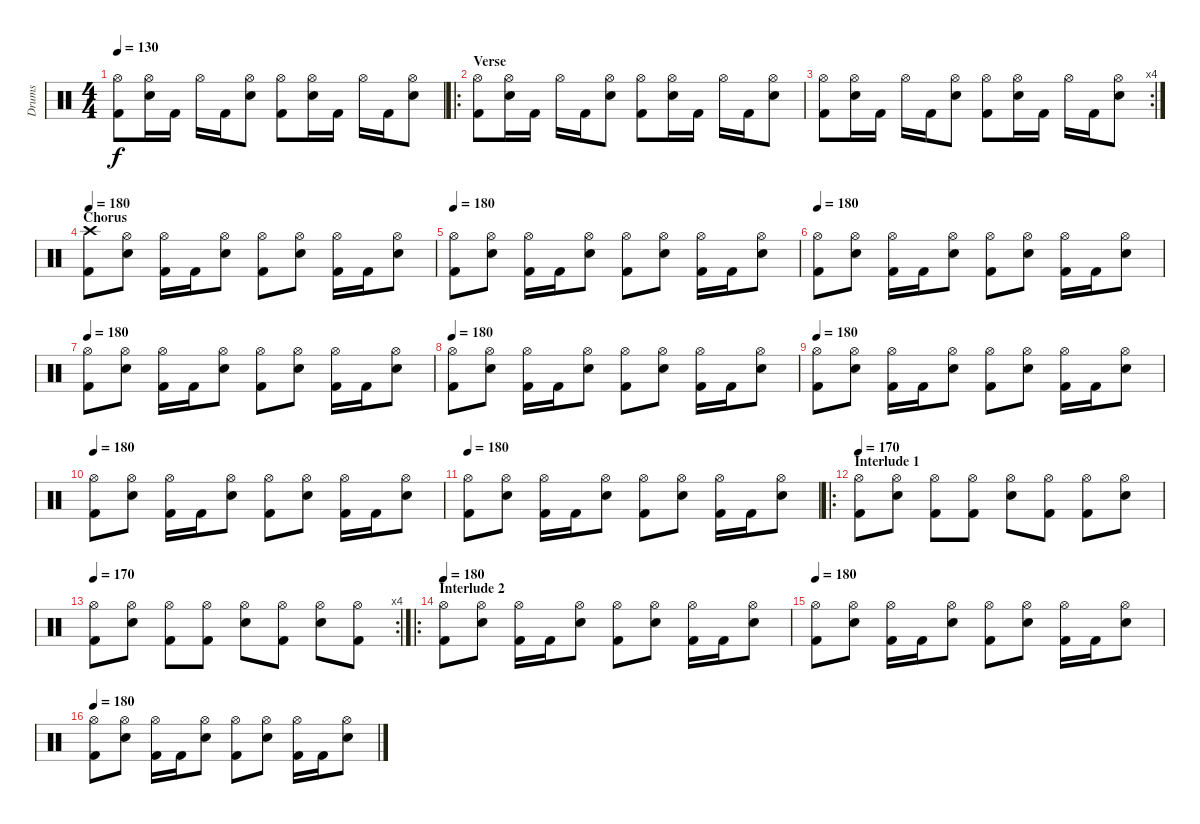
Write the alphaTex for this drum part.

\track ("Drums" "Drums") {instrument percussion}
\staff {score}
\articulation defaults
\ts (4 4)
\tempo 130
\clef neutral
\ks c
("Hi-Hat (open)" "Kick (hit) 2").8{dy f} ("Hi-Hat (open)" "Electric Snare (hit)").16 "Kick (hit) 2".16 "Hi-Hat (open)".16 "Kick (hit) 2".16 ("Hi-Hat (open)" "Electric Snare (hit)").8 ("Hi-Hat (open)" "Kick (hit) 2").8 ("Hi-Hat (open)" "Electric Snare (hit)").16 "Kick (hit) 2".16 "Hi-Hat (open)".16 "Kick (hit) 2".16 ("Hi-Hat (open)" "Electric Snare (hit)").8 |
\ro
\section ("" "Verse")
("Hi-Hat (open)" "Kick (hit) 2").8 ("Hi-Hat (open)" "Electric Snare (hit)").16 "Kick (hit) 2".16 "Hi-Hat (open)".16 "Kick (hit) 2".16 ("Hi-Hat (open)" "Electric Snare (hit)").8 ("Hi-Hat (open)" "Kick (hit) 2").8 ("Hi-Hat (open)" "Electric Snare (hit)").16 "Kick (hit) 2".16 "Hi-Hat (open)".16 "Kick (hit) 2".16 ("Hi-Hat (open)" "Electric Snare (hit)").8 |
\rc 4
("Hi-Hat (open)" "Kick (hit) 2").8 ("Hi-Hat (open)" "Electric Snare (hit)").16 "Kick (hit) 2".16 "Hi-Hat (open)".16 "Kick (hit) 2".16 ("Hi-Hat (open)" "Electric Snare (hit)").8 ("Hi-Hat (open)" "Kick (hit) 2").8 ("Hi-Hat (open)" "Electric Snare (hit)").16 "Kick (hit) 2".16 "Hi-Hat (open)".16 "Kick (hit) 2".16 ("Hi-Hat (open)" "Electric Snare (hit)").8 |
\section ("" "Chorus")
\tempo 180
("Crash high (hit)" "Kick (hit) 2").8 ("Hi-Hat (open)" "Electric Snare (hit)").8 ("Hi-Hat (open)" "Kick (hit) 2").16 "Kick (hit) 2".16 ("Hi-Hat (open)" "Electric Snare (hit)").8 ("Hi-Hat (open)" "Kick (hit) 2").8 ("Hi-Hat (open)" "Electric Snare (hit)").8 ("Hi-Hat (open)" "Kick (hit) 2").16 "Kick (hit) 2".16 ("Hi-Hat (open)" "Electric Snare (hit)").8 |
\tempo 180
("Hi-Hat (open)" "Kick (hit) 2").8 ("Hi-Hat (open)" "Electric Snare (hit)").8 ("Hi-Hat (open)" "Kick (hit) 2").16 "Kick (hit) 2".16 ("Hi-Hat (open)" "Electric Snare (hit)").8 ("Hi-Hat (open)" "Kick (hit) 2").8 ("Hi-Hat (open)" "Electric Snare (hit)").8 ("Hi-Hat (open)" "Kick (hit) 2").16 "Kick (hit) 2".16 ("Hi-Hat (open)" "Electric Snare (hit)").8 |
\tempo 180
("Hi-Hat (open)" "Kick (hit) 2").8 ("Hi-Hat (open)" "Electric Snare (hit)").8 ("Hi-Hat (open)" "Kick (hit) 2").16 "Kick (hit) 2".16 ("Hi-Hat (open)" "Electric Snare (hit)").8 ("Hi-Hat (open)" "Kick (hit) 2").8 ("Hi-Hat (open)" "Electric Snare (hit)").8 ("Hi-Hat (open)" "Kick (hit) 2").16 "Kick (hit) 2".16 ("Hi-Hat (open)" "Electric Snare (hit)").8 |
\tempo 180
("Hi-Hat (open)" "Kick (hit) 2").8 ("Hi-Hat (open)" "Electric Snare (hit)").8 ("Hi-Hat (open)" "Kick (hit) 2").16 "Kick (hit) 2".16 ("Hi-Hat (open)" "Electric Snare (hit)").8 ("Hi-Hat (open)" "Kick (hit) 2").8 ("Hi-Hat (open)" "Electric Snare (hit)").8 ("Hi-Hat (open)" "Kick (hit) 2").16 "Kick (hit) 2".16 ("Hi-Hat (open)" "Electric Snare (hit)").8 |
\tempo 180
("Hi-Hat (open)" "Kick (hit) 2").8 ("Hi-Hat (open)" "Electric Snare (hit)").8 ("Hi-Hat (open)" "Kick (hit) 2").16 "Kick (hit) 2".16 ("Hi-Hat (open)" "Electric Snare (hit)").8 ("Hi-Hat (open)" "Kick (hit) 2").8 ("Hi-Hat (open)" "Electric Snare (hit)").8 ("Hi-Hat (open)" "Kick (hit) 2").16 "Kick (hit) 2".16 ("Hi-Hat (open)" "Electric Snare (hit)").8 |
\tempo 180
("Hi-Hat (open)" "Kick (hit) 2").8 ("Hi-Hat (open)" "Electric Snare (hit)").8 ("Hi-Hat (open)" "Kick (hit) 2").16 "Kick (hit) 2".16 ("Hi-Hat (open)" "Electric Snare (hit)").8 ("Hi-Hat (open)" "Kick (hit) 2").8 ("Hi-Hat (open)" "Electric Snare (hit)").8 ("Hi-Hat (open)" "Kick (hit) 2").16 "Kick (hit) 2".16 ("Hi-Hat (open)" "Electric Snare (hit)").8 |
\tempo 180
("Hi-Hat (open)" "Kick (hit) 2").8 ("Hi-Hat (open)" "Electric Snare (hit)").8 ("Hi-Hat (open)" "Kick (hit) 2").16 "Kick (hit) 2".16 ("Hi-Hat (open)" "Electric Snare (hit)").8 ("Hi-Hat (open)" "Kick (hit) 2").8 ("Hi-Hat (open)" "Electric Snare (hit)").8 ("Hi-Hat (open)" "Kick (hit) 2").16 "Kick (hit) 2".16 ("Hi-Hat (open)" "Electric Snare (hit)").8 |
\tempo 180
("Hi-Hat (open)" "Kick (hit) 2").8 ("Hi-Hat (open)" "Electric Snare (hit)").8 ("Hi-Hat (open)" "Kick (hit) 2").16 "Kick (hit) 2".16 ("Hi-Hat (open)" "Electric Snare (hit)").8 ("Hi-Hat (open)" "Kick (hit) 2").8 ("Hi-Hat (open)" "Electric Snare (hit)").8 ("Hi-Hat (open)" "Kick (hit) 2").16 "Kick (hit) 2".16 ("Hi-Hat (open)" "Electric Snare (hit)").8 |
\ro
\section ("" "Interlude 1")
\tempo 170
("Hi-Hat (open)" "Kick (hit) 2").8 ("Hi-Hat (open)" "Electric Snare (hit)").8 ("Hi-Hat (open)" "Kick (hit) 2").8 ("Hi-Hat (open)" "Kick (hit) 2").8 ("Hi-Hat (open)" "Electric Snare (hit)").8 ("Hi-Hat (open)" "Kick (hit) 2").8 ("Hi-Hat (open)" "Kick (hit) 2").8 ("Hi-Hat (open)" "Electric Snare (hit)").8 |
\rc 4
\tempo 170
("Hi-Hat (open)" "Kick (hit) 2").8 ("Hi-Hat (open)" "Electric Snare (hit)").8 ("Hi-Hat (open)" "Kick (hit) 2").8 ("Hi-Hat (open)" "Kick (hit) 2").8 ("Hi-Hat (open)" "Electric Snare (hit)").8 ("Hi-Hat (open)" "Kick (hit) 2").8 ("Hi-Hat (open)" "Electric Snare (hit)").8 ("Hi-Hat (open)" "Kick (hit) 2").8 |
\ro
\section ("" "Interlude 2")
\tempo 180
("Hi-Hat (open)" "Kick (hit) 2").8 ("Hi-Hat (open)" "Electric Snare (hit)").8 ("Hi-Hat (open)" "Kick (hit) 2").16 "Kick (hit) 2".16 ("Hi-Hat (open)" "Electric Snare (hit)").8 ("Hi-Hat (open)" "Kick (hit) 2").8 ("Hi-Hat (open)" "Electric Snare (hit)").8 ("Hi-Hat (open)" "Kick (hit) 2").16 "Kick (hit) 2".16 ("Hi-Hat (open)" "Electric Snare (hit)").8 |
\tempo 180
("Hi-Hat (open)" "Kick (hit) 2").8 ("Hi-Hat (open)" "Electric Snare (hit)").8 ("Hi-Hat (open)" "Kick (hit) 2").16 "Kick (hit) 2".16 ("Hi-Hat (open)" "Electric Snare (hit)").8 ("Hi-Hat (open)" "Kick (hit) 2").8 ("Hi-Hat (open)" "Electric Snare (hit)").8 ("Hi-Hat (open)" "Kick (hit) 2").16 "Kick (hit) 2".16 ("Hi-Hat (open)" "Electric Snare (hit)").8 |
\tempo 180
("Hi-Hat (open)" "Kick (hit) 2").8 ("Hi-Hat (open)" "Electric Snare (hit)").8 ("Hi-Hat (open)" "Kick (hit) 2").16 "Kick (hit) 2".16 ("Hi-Hat (open)" "Electric Snare (hit)").8 ("Hi-Hat (open)" "Kick (hit) 2").8 ("Hi-Hat (open)" "Electric Snare (hit)").8 ("Hi-Hat (open)" "Kick (hit) 2").16 "Kick (hit) 2".16 ("Hi-Hat (open)" "Electric Snare (hit)").8
